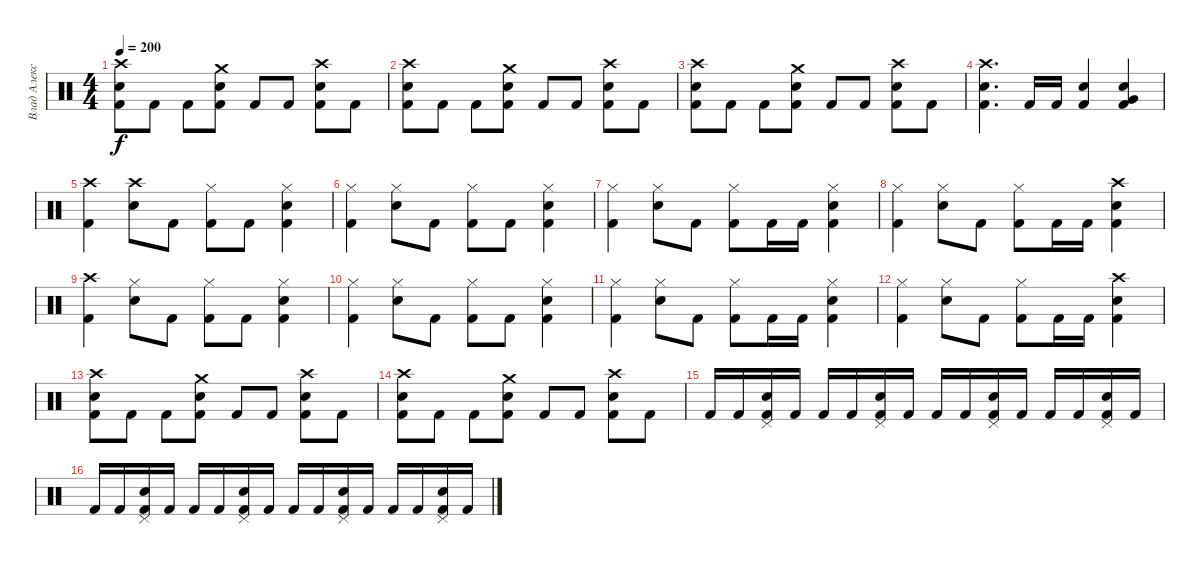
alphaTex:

\track ("Влад Алексеенко" "Влад Алекс") {instrument percussion}
\staff {score}
\articulation defaults
\ts (4 4)
\tempo 200
\clef neutral
\ks c
("Crash high (hit)" "Electric Snare (hit)" "Kick (hit) 2").8{dy f} "Kick (hit) 2".8 "Kick (hit) 2".8 ("Crash medium (hit)" "Electric Snare (hit)" "Kick (hit) 2").8 "Kick (hit) 2".8 "Kick (hit) 2".8 ("Crash high (hit)" "Electric Snare (hit)" "Kick (hit) 2").8 "Kick (hit) 2".8 |
("Crash high (hit)" "Electric Snare (hit)" "Kick (hit) 2").8 "Kick (hit) 2".8 "Kick (hit) 2".8 ("Crash medium (hit)" "Electric Snare (hit)" "Kick (hit) 2").8 "Kick (hit) 2".8 "Kick (hit) 2".8 ("Crash high (hit)" "Electric Snare (hit)" "Kick (hit) 2").8 "Kick (hit) 2".8 |
("Crash high (hit)" "Electric Snare (hit)" "Kick (hit) 2").8 "Kick (hit) 2".8 "Kick (hit) 2".8 ("Crash medium (hit)" "Electric Snare (hit)" "Kick (hit) 2").8 "Kick (hit) 2".8 "Kick (hit) 2".8 ("Crash high (hit)" "Electric Snare (hit)" "Kick (hit) 2").8 "Kick (hit) 2".8 |
("Crash high (hit)" "Electric Snare (hit)" "Kick (hit) 2").4{d} "Kick (hit) 2".16 "Kick (hit) 2".16 ("Electric Snare (hit)" "Kick (hit) 2").4 ("Very Low Tom (hit)" "Electric Snare (hit)" "Kick (hit) 2").4 |
("Crash high (hit)" "Kick (hit) 2").4 ("Crash high (hit)" "Electric Snare (hit)").8 "Kick (hit) 2".8 ("Hi-Hat (closed)" "Kick (hit) 2").8 "Kick (hit) 2".8 ("Hi-Hat (closed)" "Electric Snare (hit)" "Kick (hit) 2").4 |
("Hi-Hat (closed)" "Kick (hit) 2").4 ("Hi-Hat (closed)" "Electric Snare (hit)").8 "Kick (hit) 2".8 ("Hi-Hat (closed)" "Kick (hit) 2").8 "Kick (hit) 2".8 ("Hi-Hat (closed)" "Electric Snare (hit)" "Kick (hit) 2").4 |
("Hi-Hat (closed)" "Kick (hit) 2").4 ("Hi-Hat (closed)" "Electric Snare (hit)").8 "Kick (hit) 2".8 ("Hi-Hat (closed)" "Kick (hit) 2").8 "Kick (hit) 2".16 "Kick (hit) 2".16 ("Hi-Hat (closed)" "Electric Snare (hit)" "Kick (hit) 2").4 |
("Hi-Hat (closed)" "Kick (hit) 2").4 ("Hi-Hat (closed)" "Electric Snare (hit)").8 "Kick (hit) 2".8 ("Hi-Hat (closed)" "Kick (hit) 2").8 "Kick (hit) 2".16 "Kick (hit) 2".16 ("Crash high (hit)" "Electric Snare (hit)" "Kick (hit) 2").4 |
("Crash high (hit)" "Kick (hit) 2").4 ("Hi-Hat (closed)" "Electric Snare (hit)").8 "Kick (hit) 2".8 ("Hi-Hat (closed)" "Kick (hit) 2").8 "Kick (hit) 2".8 ("Hi-Hat (closed)" "Electric Snare (hit)" "Kick (hit) 2").4 |
("Hi-Hat (closed)" "Kick (hit) 2").4 ("Hi-Hat (closed)" "Electric Snare (hit)").8 "Kick (hit) 2".8 ("Hi-Hat (closed)" "Kick (hit) 2").8 "Kick (hit) 2".8 ("Hi-Hat (closed)" "Electric Snare (hit)" "Kick (hit) 2").4 |
("Hi-Hat (closed)" "Kick (hit) 2").4 ("Hi-Hat (closed)" "Electric Snare (hit)").8 "Kick (hit) 2".8 ("Hi-Hat (closed)" "Kick (hit) 2").8 "Kick (hit) 2".16 "Kick (hit) 2".16 ("Hi-Hat (closed)" "Electric Snare (hit)" "Kick (hit) 2").4 |
("Hi-Hat (closed)" "Kick (hit) 2").4 ("Hi-Hat (closed)" "Electric Snare (hit)").8 "Kick (hit) 2".8 ("Hi-Hat (closed)" "Kick (hit) 2").8 "Kick (hit) 2".16 "Kick (hit) 2".16 ("Crash high (hit)" "Electric Snare (hit)" "Kick (hit) 2").4 |
("Crash high (hit)" "Electric Snare (hit)" "Kick (hit) 2").8 "Kick (hit) 2".8 "Kick (hit) 2".8 ("Crash medium (hit)" "Electric Snare (hit)" "Kick (hit) 2").8 "Kick (hit) 2".8 "Kick (hit) 2".8 ("Crash high (hit)" "Electric Snare (hit)" "Kick (hit) 2").8 "Kick (hit) 2".8 |
("Crash high (hit)" "Electric Snare (hit)" "Kick (hit) 2").8 "Kick (hit) 2".8 "Kick (hit) 2".8 ("Crash medium (hit)" "Electric Snare (hit)" "Kick (hit) 2").8 "Kick (hit) 2".8 "Kick (hit) 2".8 ("Crash high (hit)" "Electric Snare (hit)" "Kick (hit) 2").8 "Kick (hit) 2".8 |
"Kick (hit) 2".16 "Kick (hit) 2".16 ("Kick (hit) 2" "Electric Snare (hit)" "Pedal Hi-Hat (hit)").16 "Kick (hit) 2".16 "Kick (hit) 2".16 "Kick (hit) 2".16 ("Kick (hit) 2" "Electric Snare (hit)" "Pedal Hi-Hat (hit)").16 "Kick (hit) 2".16 "Kick (hit) 2".16 "Kick (hit) 2".16 ("Kick (hit) 2" "Electric Snare (hit)" "Pedal Hi-Hat (hit)").16 "Kick (hit) 2".16 "Kick (hit) 2".16 "Kick (hit) 2".16 ("Kick (hit) 2" "Electric Snare (hit)" "Pedal Hi-Hat (hit)").16 "Kick (hit) 2".16 |
"Kick (hit) 2".16 "Kick (hit) 2".16 ("Kick (hit) 2" "Electric Snare (hit)" "Pedal Hi-Hat (hit)").16 "Kick (hit) 2".16 "Kick (hit) 2".16 "Kick (hit) 2".16 ("Kick (hit) 2" "Electric Snare (hit)" "Pedal Hi-Hat (hit)").16 "Kick (hit) 2".16 "Kick (hit) 2".16 "Kick (hit) 2".16 ("Kick (hit) 2" "Electric Snare (hit)" "Pedal Hi-Hat (hit)").16 "Kick (hit) 2".16 "Kick (hit) 2".16 "Kick (hit) 2".16 ("Kick (hit) 2" "Electric Snare (hit)" "Pedal Hi-Hat (hit)").16 "Kick (hit) 2".16
